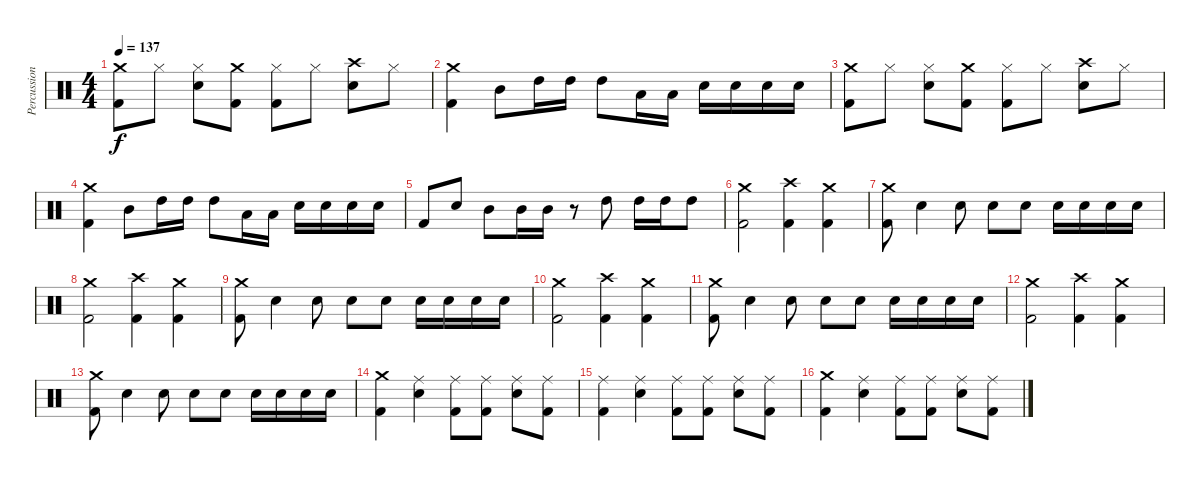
\track ("Percussions" "Percussion") {instrument percussion}
\staff {score}
\articulation defaults
\ts (4 4)
\tempo 137
\clef neutral
\ks c
("Crash medium (hit)" "Kick (hit) 2").8{dy f} "Hi-Hat (closed)".8 ("Hi-Hat (closed)" "Electric Snare (hit)").8 ("Crash medium (hit)" "Kick (hit) 2").8 ("Hi-Hat (closed)" "Kick (hit) 2").8 "Hi-Hat (closed)".8 ("Crash high (hit)" "Electric Snare (hit)").8 "Hi-Hat (closed)".8 |
("Crash medium (hit)" "Kick (hit) 2").4 "Mid Tom (hit)".8 "High Tom (hit)".16 "High Tom (hit)".16 "High Tom (hit)".8 "Low Tom (hit)".16 "Low Tom (hit)".16 "Electric Snare (hit)".16 "Electric Snare (hit)".16 "Electric Snare (hit)".16 "Electric Snare (hit)".16 |
("Crash medium (hit)" "Kick (hit) 2").8 "Hi-Hat (closed)".8 ("Hi-Hat (closed)" "Electric Snare (hit)").8 ("Crash medium (hit)" "Kick (hit) 2").8 ("Hi-Hat (closed)" "Kick (hit) 2").8 "Hi-Hat (closed)".8 ("Crash high (hit)" "Electric Snare (hit)").8 "Hi-Hat (closed)".8 |
("Crash medium (hit)" "Kick (hit) 2").4 "Mid Tom (hit)".8 "High Tom (hit)".16 "High Tom (hit)".16 "High Tom (hit)".8 "Low Tom (hit)".16 "Low Tom (hit)".16 "Electric Snare (hit)".16 "Electric Snare (hit)".16 "Electric Snare (hit)".16 "Electric Snare (hit)".16 |
"Kick (hit) 2".8 "Electric Snare (hit)".8 "Mid Tom (hit)".8 "Mid Tom (hit)".16 "Mid Tom (hit)".16 r.8 "High Tom (hit)".8 "High Tom (hit)".16 "High Tom (hit)".16 "High Tom (hit)".8 |
("Crash medium (hit)" "Kick (hit) 2").2 ("Crash high (hit)" "Kick (hit) 2").4 ("Crash medium (hit)" "Kick (hit) 2").4 |
("Crash medium (hit)" "Kick (hit) 2").8 "Electric Snare (hit)".4 "Electric Snare (hit)".8 "Electric Snare (hit)".8 "Electric Snare (hit)".8 "Electric Snare (hit)".16 "Electric Snare (hit)".16 "Electric Snare (hit)".16 "Electric Snare (hit)".16 |
("Crash medium (hit)" "Kick (hit) 2").2 ("Crash high (hit)" "Kick (hit) 2").4 ("Crash medium (hit)" "Kick (hit) 2").4 |
("Crash medium (hit)" "Kick (hit) 2").8 "Electric Snare (hit)".4 "Electric Snare (hit)".8 "Electric Snare (hit)".8 "Electric Snare (hit)".8 "Electric Snare (hit)".16 "Electric Snare (hit)".16 "Electric Snare (hit)".16 "Electric Snare (hit)".16 |
("Crash medium (hit)" "Kick (hit) 2").2 ("Crash high (hit)" "Kick (hit) 2").4 ("Crash medium (hit)" "Kick (hit) 2").4 |
("Crash medium (hit)" "Kick (hit) 2").8 "Electric Snare (hit)".4 "Electric Snare (hit)".8 "Electric Snare (hit)".8 "Electric Snare (hit)".8 "Electric Snare (hit)".16 "Electric Snare (hit)".16 "Electric Snare (hit)".16 "Electric Snare (hit)".16 |
("Crash medium (hit)" "Kick (hit) 2").2 ("Crash high (hit)" "Kick (hit) 2").4 ("Crash medium (hit)" "Kick (hit) 2").4 |
("Crash medium (hit)" "Kick (hit) 2").8 "Electric Snare (hit)".4 "Electric Snare (hit)".8 "Electric Snare (hit)".8 "Electric Snare (hit)".8 "Electric Snare (hit)".16 "Electric Snare (hit)".16 "Electric Snare (hit)".16 "Electric Snare (hit)".16 |
("Crash medium (hit)" "Kick (hit) 2").4 ("Ride (middle)" "Electric Snare (hit)").4 ("Ride (middle)" "Kick (hit) 2").8 ("Ride (middle)" "Kick (hit) 2").8 ("Ride (middle)" "Electric Snare (hit)").8 ("Ride (middle)" "Kick (hit) 2").8 |
("Ride (middle)" "Kick (hit) 2").4 ("Ride (middle)" "Electric Snare (hit)").4 ("Ride (middle)" "Kick (hit) 2").8 ("Ride (middle)" "Kick (hit) 2").8 ("Ride (middle)" "Electric Snare (hit)").8 ("Ride (middle)" "Kick (hit) 2").8 |
("Crash medium (hit)" "Kick (hit) 2").4 ("Ride (middle)" "Electric Snare (hit)").4 ("Ride (middle)" "Kick (hit) 2").8 ("Ride (middle)" "Kick (hit) 2").8 ("Ride (middle)" "Electric Snare (hit)").8 ("Ride (middle)" "Kick (hit) 2").8
